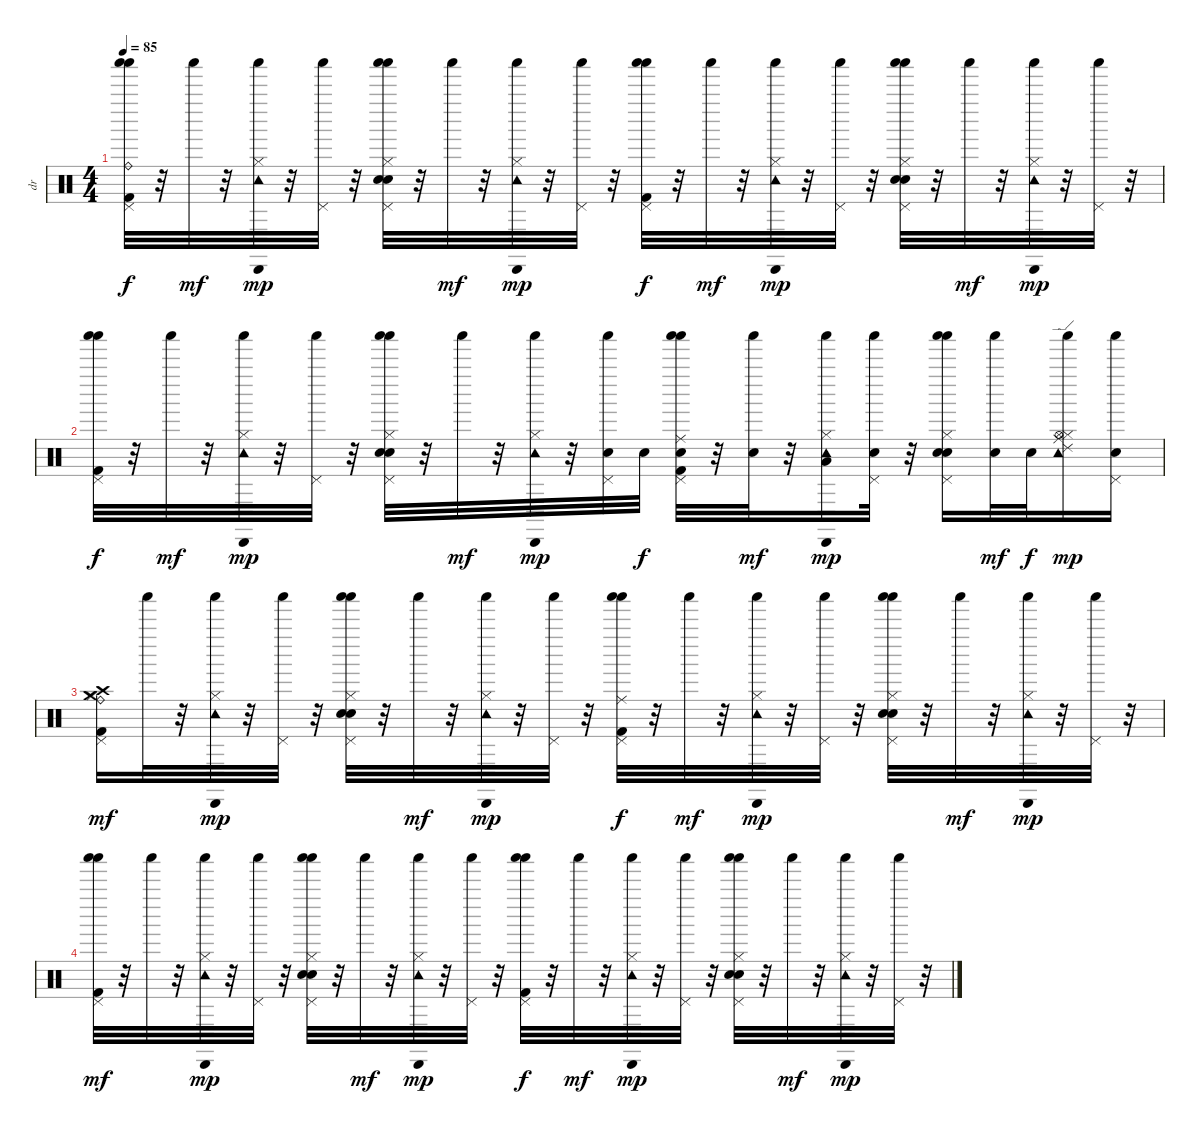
\track ("dr" "dr") {instrument percussion}
\staff {score}
\articulation defaults
\ts (4 4)
\tempo 85
\clef neutral
\ks c
("Pedal Hi-Hat (hit)" "Shaker (hit)" "Shaker (hit)" "Kick (hit) 2" "Ride (bell)").32{dy f} r.32 "Shaker (hit)".32{dy mf} r.32 ("Hi-Hat (closed)" "Cabasa (hit)" "Tambourine (hit)" "Shaker (hit)").32{dy mp} r.32 ("Pedal Hi-Hat (hit)" "Shaker (hit)").32 r.32 ("Electric Snare (hit)" "Pedal Hi-Hat (hit)" "Shaker (hit)" "Shaker (hit)" "Hi-Hat (closed)" "Snare (hit) 2").32 r.32 "Shaker (hit)".32{dy mf} r.32 ("Hi-Hat (closed)" "Tambourine (hit)" "Cabasa (hit)" "Shaker (hit)").32{dy mp} r.32 ("Pedal Hi-Hat (hit)" "Shaker (hit)").32 r.32 ("Pedal Hi-Hat (hit)" "Shaker (hit)" "Shaker (hit)" "Kick (hit) 2").32{dy f} r.32 "Shaker (hit)".32{dy mf} r.32 ("Hi-Hat (closed)" "Cabasa (hit)" "Tambourine (hit)" "Shaker (hit)").32{dy mp} r.32 ("Pedal Hi-Hat (hit)" "Shaker (hit)").32 r.32 ("Electric Snare (hit)" "Pedal Hi-Hat (hit)" "Shaker (hit)" "Shaker (hit)" "Hi-Hat (closed)" "Snare (hit) 2").32 r.32 "Shaker (hit)".32{dy mf} r.32 ("Hi-Hat (closed)" "Cabasa (hit)" "Tambourine (hit)" "Shaker (hit)").32{dy mp} r.32 ("Pedal Hi-Hat (hit)" "Shaker (hit)").32 r.32 |
("Pedal Hi-Hat (hit)" "Shaker (hit)" "Shaker (hit)" "Kick (hit) 2").32{dy f} r.32 "Shaker (hit)".32{dy mf} r.32 ("Hi-Hat (closed)" "Cabasa (hit)" "Tambourine (hit)" "Shaker (hit)").32{dy mp} r.32 ("Pedal Hi-Hat (hit)" "Shaker (hit)").32 r.32 ("Electric Snare (hit)" "Pedal Hi-Hat (hit)" "Shaker (hit)" "Shaker (hit)" "Hi-Hat (closed)" "Snare (hit) 2").32 r.32 "Shaker (hit)".32{dy mf} r.32 ("Hi-Hat (closed)" "Cabasa (hit)" "Tambourine (hit)" "Shaker (hit)").32{dy mp} r.32 ("Pedal Hi-Hat (hit)" "Shaker (hit)" "Snare (hit) 2").32 "Snare (hit) 2".32{dy f} ("Pedal Hi-Hat (hit)" "Shaker (hit)" "Shaker (hit)" "Kick (hit) 2" "Snare (hit) 2" "Ride (middle)").32 r.32 ("Shaker (hit)" "Snare (hit) 2").32{dy mf} r.32 ("Cabasa (hit)" "Tambourine (hit)" "Shaker (hit)" "Hi-Hat (closed)" "Low Tom (hit)").16{dy mp} ("Pedal Hi-Hat (hit)" "Shaker (hit)" "Snare (hit) 2").32 r.32 ("Electric Snare (hit)" "Pedal Hi-Hat (hit)" "Shaker (hit)" "Shaker (hit)" "Hi-Hat (closed)" "Snare (hit) 2").16 ("Shaker (hit)" "Snare (hit) 2").32{dy mf} "Snare (hit) 2".32{dy f} ("Hi-Hat (closed)" "Tambourine (hit)" "Shaker (hit)" "Ride (middle)" "Hi-Hat (open)" "Ride (edge) 2").16{dy mp} ("Pedal Hi-Hat (hit)" "Shaker (hit)" "Snare (hit) 2").16 |
("Kick (hit) 2" "Pedal Hi-Hat (hit)" "Hi-Hat (closed)" "Crash high (hit)" "Ride (bell)" "Crash medium (hit)").16{dy mf} "Shaker (hit)".32 r.32 ("Hi-Hat (closed)" "Tambourine (hit)" "Cabasa (hit)" "Shaker (hit)").32{dy mp} r.32 ("Pedal Hi-Hat (hit)" "Shaker (hit)").32 r.32 ("Electric Snare (hit)" "Pedal Hi-Hat (hit)" "Shaker (hit)" "Shaker (hit)" "Hi-Hat (closed)" "Snare (hit) 2").32 r.32 "Shaker (hit)".32{dy mf} r.32 ("Hi-Hat (closed)" "Tambourine (hit)" "Cabasa (hit)" "Shaker (hit)").32{dy mp} r.32 ("Pedal Hi-Hat (hit)" "Shaker (hit)").32 r.32 ("Pedal Hi-Hat (hit)" "Shaker (hit)" "Shaker (hit)" "Kick (hit) 2" "Ride (middle)").32{dy f} r.32 "Shaker (hit)".32{dy mf} r.32 ("Hi-Hat (closed)" "Tambourine (hit)" "Cabasa (hit)" "Shaker (hit)").32{dy mp} r.32 ("Pedal Hi-Hat (hit)" "Shaker (hit)").32 r.32 ("Electric Snare (hit)" "Pedal Hi-Hat (hit)" "Shaker (hit)" "Shaker (hit)" "Hi-Hat (closed)" "Snare (hit) 2").32 r.32 "Shaker (hit)".32{dy mf} r.32 ("Hi-Hat (closed)" "Tambourine (hit)" "Cabasa (hit)" "Shaker (hit)").32{dy mp} r.32 ("Pedal Hi-Hat (hit)" "Shaker (hit)").32 r.32 |
("Pedal Hi-Hat (hit)" "Shaker (hit)" "Shaker (hit)" "Kick (hit) 2").32{dy mf} r.32 "Shaker (hit)".32 r.32 ("Hi-Hat (closed)" "Tambourine (hit)" "Cabasa (hit)" "Shaker (hit)").32{dy mp} r.32 ("Pedal Hi-Hat (hit)" "Shaker (hit)").32 r.32 ("Electric Snare (hit)" "Pedal Hi-Hat (hit)" "Shaker (hit)" "Shaker (hit)" "Hi-Hat (closed)" "Snare (hit) 2").32 r.32 "Shaker (hit)".32{dy mf} r.32 ("Hi-Hat (closed)" "Tambourine (hit)" "Cabasa (hit)" "Shaker (hit)").32{dy mp} r.32 ("Pedal Hi-Hat (hit)" "Shaker (hit)").32 r.32 ("Pedal Hi-Hat (hit)" "Shaker (hit)" "Shaker (hit)" "Kick (hit) 2").32{dy f} r.32 "Shaker (hit)".32{dy mf} r.32 ("Hi-Hat (closed)" "Tambourine (hit)" "Cabasa (hit)" "Shaker (hit)").32{dy mp} r.32 ("Pedal Hi-Hat (hit)" "Shaker (hit)").32 r.32 ("Electric Snare (hit)" "Pedal Hi-Hat (hit)" "Shaker (hit)" "Shaker (hit)" "Hi-Hat (closed)" "Snare (hit) 2").32 r.32 "Shaker (hit)".32{dy mf} r.32 ("Hi-Hat (closed)" "Tambourine (hit)" "Cabasa (hit)" "Shaker (hit)").32{dy mp} r.32 ("Pedal Hi-Hat (hit)" "Shaker (hit)").32 r.32
